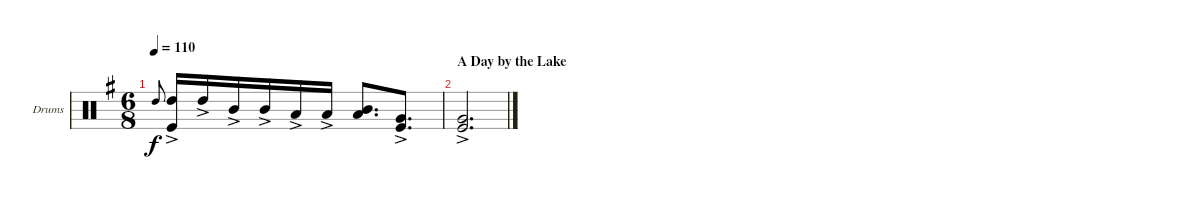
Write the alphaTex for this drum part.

\bracketExtendMode groupsimilarinstruments
\firstSystemTrackNameOrientation horizontal
\otherSystemsTrackNameOrientation horizontal
\track ("Drumkit" "Drums") {instrument percussion}
\staff {score}
\articulation defaults
\ts (6 8)
\tempo 110
\clef neutral
\ks eminor "High Tom (hit)".8{gr onbeat dy f}
("High Tom (hit)"{ac} "Kick (hit)").16 "High Tom (hit)"{ac}.16 "Mid Tom (hit)"{ac}.16 "Mid Tom (hit)"{ac}.16 "Low Tom (hit)"{ac}.16 "Low Tom (hit)"{ac}.16 ("Mid Tom (hit)" "Low Tom (hit)").8{d} ("Very Low Tom (hit)"{ac} "Kick (hit)").8{d} |
\section ("" "A Day by the Lake")
("Very Low Tom (hit)"{ac} "Kick (hit)"{ac}).2{d}
